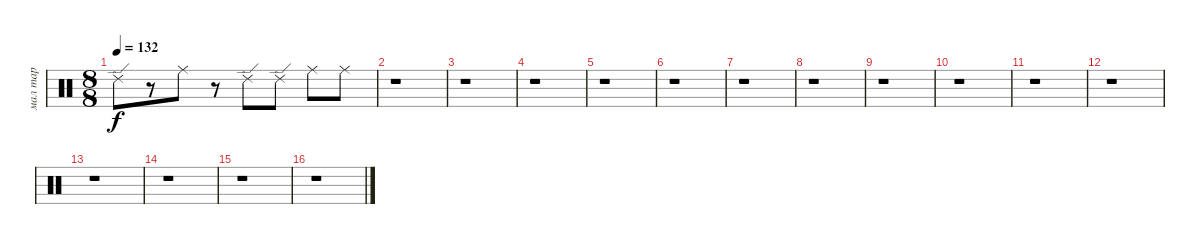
\track ("мал тар" "мал тар") {instrument percussion}
\staff {score}
\articulation defaults
\ts (8 8)
\tempo 132
\clef neutral
\ks c "Ride (edge) 2".8{dy f}
r.8 "Ride (middle)".8 r.8 "Ride (edge) 2".8 "Ride (edge) 2".8 "Ride (middle)".8 "Ride (middle)".8 |
r.1 |
r.1 |
r.1 |
r.1 |
r.1 |
r.1 |
r.1 |
r.1 |
r.1 |
r.1 |
r.1 |
r.1 |
r.1 |
r.1 |
r.1
